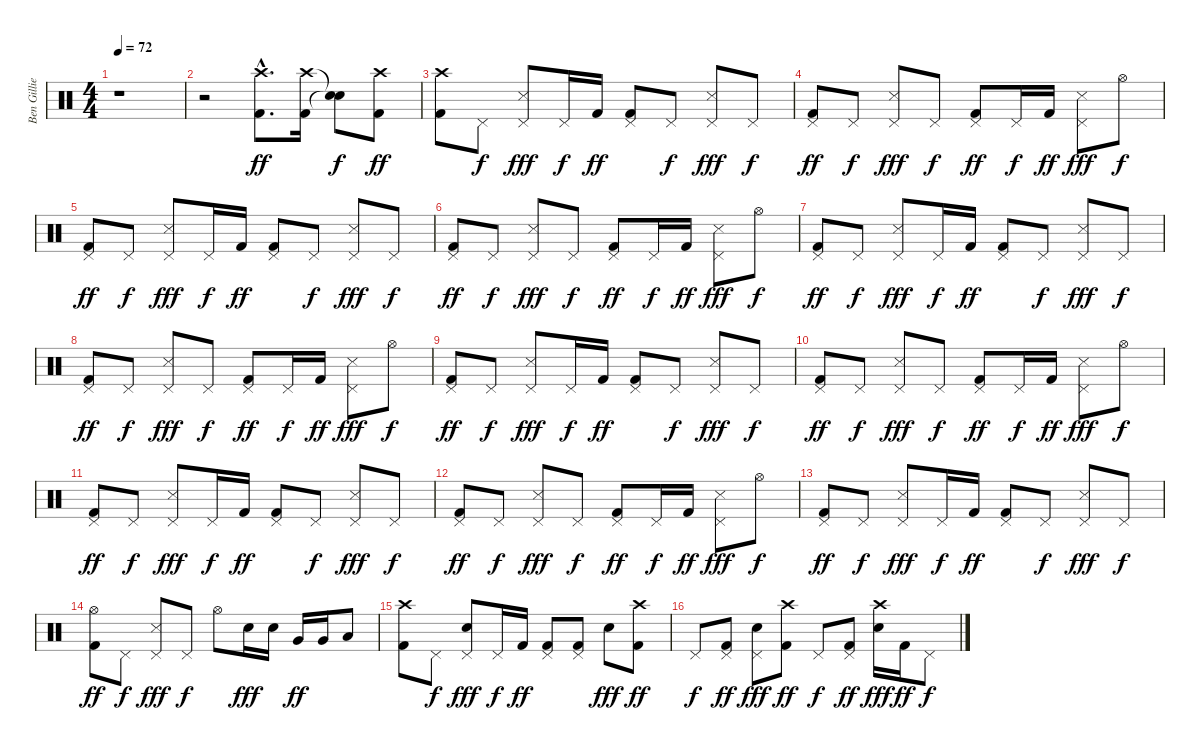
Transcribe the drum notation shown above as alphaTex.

\track ("Ben Gillies" "Ben Gillie") {instrument percussion}
\staff {score}
\articulation defaults
\ts (4 4)
\tempo 72
\clef neutral
\ks c
r.1{dy ff} |
r.2 ("Crash high (hit)"{hac} "Kick (hit) 2"{hac}).8{d} ("Crash high (hit)" "Kick (hit) 2").16 ("Snare (hit)"{t} "Snare (hit)"{t}).8{dy f} ("Crash high (hit)" "Kick (hit) 2").8{dy ff} |
("Crash high (hit)" "Kick (hit) 2").8 "Pedal Hi-Hat (hit)".8{dy f} ("Pedal Hi-Hat (hit)" "Snare (side stick) 3").8{dy fff} "Pedal Hi-Hat (hit)".16{dy f} "Kick (hit) 2".16{dy ff} ("Pedal Hi-Hat (hit)" "Kick (hit) 2").8 "Pedal Hi-Hat (hit)".8{dy f} ("Pedal Hi-Hat (hit)" "Snare (side stick) 3").8{dy fff} "Pedal Hi-Hat (hit)".8{dy f} |
("Pedal Hi-Hat (hit)" "Kick (hit) 2").8{dy ff} "Pedal Hi-Hat (hit)".8{dy f} ("Pedal Hi-Hat (hit)" "Snare (side stick) 3").8{dy fff} "Pedal Hi-Hat (hit)".8{dy f} ("Pedal Hi-Hat (hit)" "Kick (hit) 2").8{dy ff} "Pedal Hi-Hat (hit)".16{dy f} "Kick (hit) 2".16{dy ff} ("Pedal Hi-Hat (hit)" "Snare (side stick) 3").8{dy fff} "Hi-Hat (open)".8{dy f} |
("Pedal Hi-Hat (hit)" "Kick (hit) 2").8{dy ff} "Pedal Hi-Hat (hit)".8{dy f} ("Pedal Hi-Hat (hit)" "Snare (side stick) 3").8{dy fff} "Pedal Hi-Hat (hit)".16{dy f} "Kick (hit) 2".16{dy ff} ("Pedal Hi-Hat (hit)" "Kick (hit) 2").8 "Pedal Hi-Hat (hit)".8{dy f} ("Pedal Hi-Hat (hit)" "Snare (side stick) 3").8{dy fff} "Pedal Hi-Hat (hit)".8{dy f} |
("Pedal Hi-Hat (hit)" "Kick (hit) 2").8{dy ff} "Pedal Hi-Hat (hit)".8{dy f} ("Pedal Hi-Hat (hit)" "Snare (side stick) 3").8{dy fff} "Pedal Hi-Hat (hit)".8{dy f} ("Pedal Hi-Hat (hit)" "Kick (hit) 2").8{dy ff} "Pedal Hi-Hat (hit)".16{dy f} "Kick (hit) 2".16{dy ff} ("Pedal Hi-Hat (hit)" "Snare (side stick) 3").8{dy fff} "Hi-Hat (open)".8{dy f} |
("Pedal Hi-Hat (hit)" "Kick (hit) 2").8{dy ff} "Pedal Hi-Hat (hit)".8{dy f} ("Pedal Hi-Hat (hit)" "Snare (side stick) 3").8{dy fff} "Pedal Hi-Hat (hit)".16{dy f} "Kick (hit) 2".16{dy ff} ("Pedal Hi-Hat (hit)" "Kick (hit) 2").8 "Pedal Hi-Hat (hit)".8{dy f} ("Pedal Hi-Hat (hit)" "Snare (side stick) 3").8{dy fff} "Pedal Hi-Hat (hit)".8{dy f} |
("Pedal Hi-Hat (hit)" "Kick (hit) 2").8{dy ff} "Pedal Hi-Hat (hit)".8{dy f} ("Pedal Hi-Hat (hit)" "Snare (side stick) 3").8{dy fff} "Pedal Hi-Hat (hit)".8{dy f} ("Pedal Hi-Hat (hit)" "Kick (hit) 2").8{dy ff} "Pedal Hi-Hat (hit)".16{dy f} "Kick (hit) 2".16{dy ff} ("Pedal Hi-Hat (hit)" "Snare (side stick) 3").8{dy fff} "Hi-Hat (open)".8{dy f} |
("Pedal Hi-Hat (hit)" "Kick (hit) 2").8{dy ff} "Pedal Hi-Hat (hit)".8{dy f} ("Pedal Hi-Hat (hit)" "Snare (side stick) 3").8{dy fff} "Pedal Hi-Hat (hit)".16{dy f} "Kick (hit) 2".16{dy ff} ("Pedal Hi-Hat (hit)" "Kick (hit) 2").8 "Pedal Hi-Hat (hit)".8{dy f} ("Pedal Hi-Hat (hit)" "Snare (side stick) 3").8{dy fff} "Pedal Hi-Hat (hit)".8{dy f} |
("Pedal Hi-Hat (hit)" "Kick (hit) 2").8{dy ff} "Pedal Hi-Hat (hit)".8{dy f} ("Pedal Hi-Hat (hit)" "Snare (side stick) 3").8{dy fff} "Pedal Hi-Hat (hit)".8{dy f} ("Pedal Hi-Hat (hit)" "Kick (hit) 2").8{dy ff} "Pedal Hi-Hat (hit)".16{dy f} "Kick (hit) 2".16{dy ff} ("Pedal Hi-Hat (hit)" "Snare (side stick) 3").8{dy fff} "Hi-Hat (open)".8{dy f} |
("Pedal Hi-Hat (hit)" "Kick (hit) 2").8{dy ff} "Pedal Hi-Hat (hit)".8{dy f} ("Pedal Hi-Hat (hit)" "Snare (side stick) 3").8{dy fff} "Pedal Hi-Hat (hit)".16{dy f} "Kick (hit) 2".16{dy ff} ("Pedal Hi-Hat (hit)" "Kick (hit) 2").8 "Pedal Hi-Hat (hit)".8{dy f} ("Pedal Hi-Hat (hit)" "Snare (side stick) 3").8{dy fff} "Pedal Hi-Hat (hit)".8{dy f} |
("Pedal Hi-Hat (hit)" "Kick (hit) 2").8{dy ff} "Pedal Hi-Hat (hit)".8{dy f} ("Pedal Hi-Hat (hit)" "Snare (side stick) 3").8{dy fff} "Pedal Hi-Hat (hit)".8{dy f} ("Pedal Hi-Hat (hit)" "Kick (hit) 2").8{dy ff} "Pedal Hi-Hat (hit)".16{dy f} "Kick (hit) 2".16{dy ff} ("Pedal Hi-Hat (hit)" "Snare (side stick) 3").8{dy fff} "Hi-Hat (open)".8{dy f} |
("Pedal Hi-Hat (hit)" "Kick (hit) 2").8{dy ff} "Pedal Hi-Hat (hit)".8{dy f} ("Pedal Hi-Hat (hit)" "Snare (side stick) 3").8{dy fff} "Pedal Hi-Hat (hit)".16{dy f} "Kick (hit) 2".16{dy ff} ("Pedal Hi-Hat (hit)" "Kick (hit) 2").8 "Pedal Hi-Hat (hit)".8{dy f} ("Pedal Hi-Hat (hit)" "Snare (side stick) 3").8{dy fff} "Pedal Hi-Hat (hit)".8{dy f} |
("Hi-Hat (open)" "Kick (hit) 2").8{dy ff} "Pedal Hi-Hat (hit)".8{dy f} ("Pedal Hi-Hat (hit)" "Snare (side stick) 3").8{dy fff} "Pedal Hi-Hat (hit)".8{dy f} "Hi-Hat (open)".8 "Electric Snare (hit)".16{dy fff} "Electric Snare (hit)".16 "Very Low Tom (hit)".16{dy ff} "Very Low Tom (hit)".16 "Low Floor Tom (hit)".8 |
("Crash high (hit)" "Kick (hit) 2").8 "Pedal Hi-Hat (hit)".8{dy f} ("Pedal Hi-Hat (hit)" "Electric Snare (hit)").8{dy fff} "Pedal Hi-Hat (hit)".16{dy f} "Kick (hit) 2".16{dy ff} ("Pedal Hi-Hat (hit)" "Kick (hit) 2").8 ("Pedal Hi-Hat (hit)" "Kick (hit) 2").8 "Electric Snare (hit)".8{dy fff} ("Crash high (hit)" "Kick (hit) 2").8{dy ff} |
"Pedal Hi-Hat (hit)".8{dy f} ("Pedal Hi-Hat (hit)" "Kick (hit) 2").8{dy ff} ("Pedal Hi-Hat (hit)" "Electric Snare (hit)").8{dy fff} ("Crash high (hit)" "Kick (hit) 2").8{dy ff} "Pedal Hi-Hat (hit)".8{dy f} ("Pedal Hi-Hat (hit)" "Kick (hit) 2").8{dy ff} ("Crash high (hit)" "Electric Snare (hit)").16{dy fff} "Kick (hit) 2".16{dy ff} "Pedal Hi-Hat (hit)".8{dy f}
